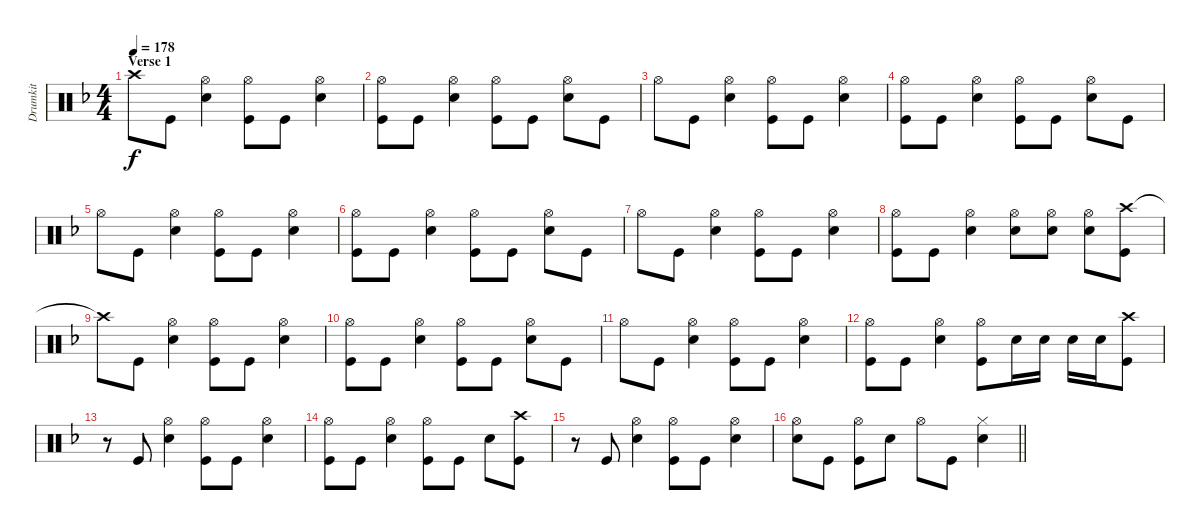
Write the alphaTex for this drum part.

\track ("Drumkit" "Drumkit") {instrument percussion}
\staff {score}
\articulation defaults
\ts (4 4)
\section ("" "Verse 1")
\tempo 178
\clef neutral
\ks f "Crash high (hit)"{t}.8{dy f} "Kick (hit)".8
("Hi-Hat (open)" "Snare (hit) 2").4 ("Hi-Hat (open)" "Kick (hit)").8 "Kick (hit)".8 ("Hi-Hat (open)" "Snare (hit) 2").4 |
("Hi-Hat (open)" "Kick (hit)").8 "Kick (hit)".8 ("Hi-Hat (open)" "Snare (hit) 2").4 ("Hi-Hat (open)" "Kick (hit)").8 "Kick (hit)".8 ("Hi-Hat (open)" "Snare (hit) 2").8 "Kick (hit)".8 |
"Hi-Hat (open)".8 "Kick (hit)".8 ("Hi-Hat (open)" "Snare (hit) 2").4 ("Hi-Hat (open)" "Kick (hit)").8 "Kick (hit)".8 ("Hi-Hat (open)" "Snare (hit) 2").4 |
("Hi-Hat (open)" "Kick (hit)").8 "Kick (hit)".8 ("Hi-Hat (open)" "Snare (hit) 2").4 ("Hi-Hat (open)" "Kick (hit)").8 "Kick (hit)".8 ("Hi-Hat (open)" "Snare (hit) 2").8 "Kick (hit)".8 |
"Hi-Hat (open)".8 "Kick (hit)".8 ("Hi-Hat (open)" "Snare (hit) 2").4 ("Hi-Hat (open)" "Kick (hit)").8 "Kick (hit)".8 ("Hi-Hat (open)" "Snare (hit) 2").4 |
("Hi-Hat (open)" "Kick (hit)").8 "Kick (hit)".8 ("Hi-Hat (open)" "Snare (hit) 2").4 ("Hi-Hat (open)" "Kick (hit)").8 "Kick (hit)".8 ("Hi-Hat (open)" "Snare (hit) 2").8 "Kick (hit)".8 |
"Hi-Hat (open)".8 "Kick (hit)".8 ("Hi-Hat (open)" "Snare (hit) 2").4 ("Hi-Hat (open)" "Kick (hit)").8 "Kick (hit)".8 ("Hi-Hat (open)" "Snare (hit) 2").4 |
("Hi-Hat (open)" "Kick (hit)").8 "Kick (hit)".8 ("Hi-Hat (open)" "Snare (hit) 2").4 ("Hi-Hat (open)" "Snare (hit) 2").8 ("Hi-Hat (open)" "Snare (hit) 2").8 ("Hi-Hat (open)" "Snare (hit) 2").8 ("Crash high (hit)" "Kick (hit)").8 |
"Crash high (hit)"{t}.8 "Kick (hit)".8 ("Hi-Hat (open)" "Snare (hit) 2").4 ("Hi-Hat (open)" "Kick (hit)").8 "Kick (hit)".8 ("Hi-Hat (open)" "Snare (hit) 2").4 |
("Hi-Hat (open)" "Kick (hit)").8 "Kick (hit)".8 ("Hi-Hat (open)" "Snare (hit) 2").4 ("Hi-Hat (open)" "Kick (hit)").8 "Kick (hit)".8 ("Hi-Hat (open)" "Snare (hit) 2").8 "Kick (hit)".8 |
"Hi-Hat (open)".8 "Kick (hit)".8 ("Hi-Hat (open)" "Snare (hit) 2").4 ("Hi-Hat (open)" "Kick (hit)").8 "Kick (hit)".8 ("Hi-Hat (open)" "Snare (hit) 2").4 |
("Hi-Hat (open)" "Kick (hit)").8 "Kick (hit)".8 ("Hi-Hat (open)" "Snare (hit) 2").4 ("Hi-Hat (open)" "Kick (hit)").8 "Snare (hit) 2".16 "Snare (hit) 2".16 "Snare (hit) 2".16 "Snare (hit) 2".16 ("Crash high (hit)" "Kick (hit)").8 |
r.8 "Kick (hit)".8 ("Hi-Hat (open)" "Snare (hit) 2").4 ("Hi-Hat (open)" "Kick (hit)").8 "Kick (hit)".8 ("Hi-Hat (open)" "Snare (hit) 2").4 |
("Hi-Hat (open)" "Kick (hit)").8 "Kick (hit)".8 ("Hi-Hat (open)" "Snare (hit) 2").4 ("Hi-Hat (open)" "Kick (hit)").8 "Kick (hit)".8 "Snare (hit) 2".8 ("Crash high (hit)" "Kick (hit)").8 |
r.8 "Kick (hit)".8 ("Hi-Hat (open)" "Snare (hit) 2").4 ("Hi-Hat (open)" "Kick (hit)").8 "Kick (hit)".8 ("Hi-Hat (open)" "Snare (hit) 2").4 |
\barLineRight lightlight
("Hi-Hat (open)" "Snare (hit) 2").8 "Kick (hit)".8 ("Hi-Hat (open)" "Kick (hit)").8 "Snare (hit) 2".8 "Hi-Hat (open)".8 "Kick (hit)".8 ("Hi-Hat (closed)" "Snare (hit) 2").4
